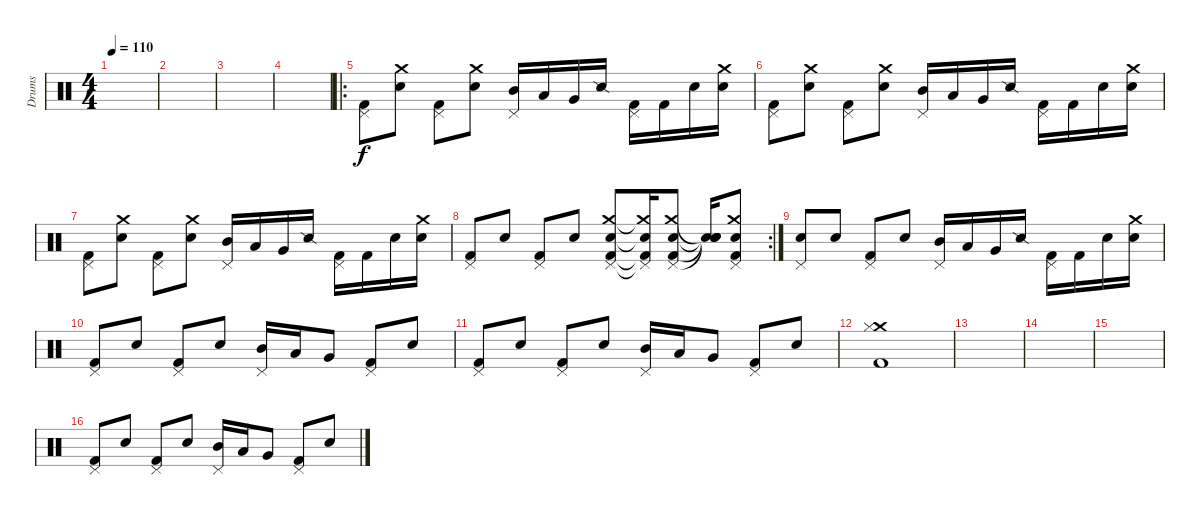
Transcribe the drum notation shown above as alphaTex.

\track ("Drums" "Drums") {instrument percussion}
\staff {score}
\articulation defaults
\ts (4 4)
\tempo 110
\clef neutral
\ks c
|
|
|
|
\ro
("Pedal Hi-Hat (hit)" "Kick (hit) 2").8 ("Crash medium (hit)" "Snare (hit) 2").8 ("Pedal Hi-Hat (hit)" "Kick (hit) 2").8 ("Crash medium (hit)" "Snare (hit) 2").8 ("Pedal Hi-Hat (hit)" "Mid Tom (hit)").16 "Low Tom (hit)".16 "Very Low Tom (hit)".16 "Snare (side stick) 2".16 ("Pedal Hi-Hat (hit)" "Kick (hit) 2").16 "Kick (hit) 2".16 "Snare (hit) 2".16 ("Crash medium (hit)" "Snare (hit) 2").16 |
("Pedal Hi-Hat (hit)" "Kick (hit) 2").8 ("Crash medium (hit)" "Snare (hit) 2").8 ("Pedal Hi-Hat (hit)" "Kick (hit) 2").8 ("Crash medium (hit)" "Snare (hit) 2").8 ("Pedal Hi-Hat (hit)" "Mid Tom (hit)").16 "Low Tom (hit)".16 "Very Low Tom (hit)".16 "Snare (side stick) 2".16 ("Pedal Hi-Hat (hit)" "Kick (hit) 2").16 "Kick (hit) 2".16 "Snare (hit) 2".16 ("Crash medium (hit)" "Snare (hit) 2").16 |
("Pedal Hi-Hat (hit)" "Kick (hit) 2").8 ("Crash medium (hit)" "Snare (hit) 2").8 ("Pedal Hi-Hat (hit)" "Kick (hit) 2").8 ("Crash medium (hit)" "Snare (hit) 2").8 ("Pedal Hi-Hat (hit)" "Mid Tom (hit)").16 "Low Tom (hit)".16 "Very Low Tom (hit)".16 "Snare (side stick) 2".16 ("Pedal Hi-Hat (hit)" "Kick (hit) 2").16 "Kick (hit) 2".16 "Snare (hit) 2".16 ("Crash medium (hit)" "Snare (hit) 2").16 |
\rc 2
("Pedal Hi-Hat (hit)" "Kick (hit) 2").8 "Snare (hit) 2".8 ("Pedal Hi-Hat (hit)" "Kick (hit) 2").8 "Snare (hit) 2".8 ("Pedal Hi-Hat (hit)" "Crash medium (hit)" "Kick (hit) 2" "Snare (hit) 2").8 ("Pedal Hi-Hat (hit)"{t} "Crash medium (hit)"{t} "Kick (hit) 2"{t} "Snare (hit) 2"{t}).16 ("Pedal Hi-Hat (hit)" "Crash medium (hit)" "Kick (hit) 2" "Snare (hit) 2").8 ("Snare (hit)"{t} "Snare (hit)"{t} "Snare (hit) 2"{t} "Snare (hit)"{t}).16 ("Pedal Hi-Hat (hit)" "Crash medium (hit)" "Kick (hit) 2" "Snare (hit) 2").8 |
("Pedal Hi-Hat (hit)" "Snare (hit) 2").8 "Snare (hit) 2".8 ("Pedal Hi-Hat (hit)" "Kick (hit) 2").8 "Snare (hit) 2".8 ("Pedal Hi-Hat (hit)" "Mid Tom (hit)").16 "Low Tom (hit)".16 "Very Low Tom (hit)".16 "Snare (side stick) 2".16 ("Pedal Hi-Hat (hit)" "Kick (hit) 2").16 "Kick (hit) 2".16 "Snare (hit) 2".16 ("Crash medium (hit)" "Snare (hit) 2").16 |
("Pedal Hi-Hat (hit)" "Kick (hit) 2").8 "Snare (hit) 2".8 ("Pedal Hi-Hat (hit)" "Kick (hit) 2").8 "Snare (hit) 2".8 ("Pedal Hi-Hat (hit)" "Mid Tom (hit)").16 "Low Tom (hit)".16 "Very Low Tom (hit)".8 ("Pedal Hi-Hat (hit)" "Kick (hit) 2").8 "Snare (hit) 2".8 |
("Pedal Hi-Hat (hit)" "Kick (hit) 2").8 "Snare (hit) 2".8 ("Pedal Hi-Hat (hit)" "Kick (hit) 2").8 "Snare (hit) 2".8 ("Pedal Hi-Hat (hit)" "Mid Tom (hit)").16 "Low Tom (hit)".16 "Very Low Tom (hit)".8 ("Pedal Hi-Hat (hit)" "Kick (hit) 2").8 "Snare (hit) 2".8 |
("Crash medium (hit)" "Hi-Hat (closed)" "Kick (hit) 2").1 |
|
|
|
("Pedal Hi-Hat (hit)" "Kick (hit) 2").8 "Snare (hit) 2".8 ("Pedal Hi-Hat (hit)" "Kick (hit) 2").8 "Snare (hit) 2".8 ("Pedal Hi-Hat (hit)" "Mid Tom (hit)").16 "Low Tom (hit)".16 "Very Low Tom (hit)".8 ("Pedal Hi-Hat (hit)" "Kick (hit) 2").8 "Snare (hit) 2".8
